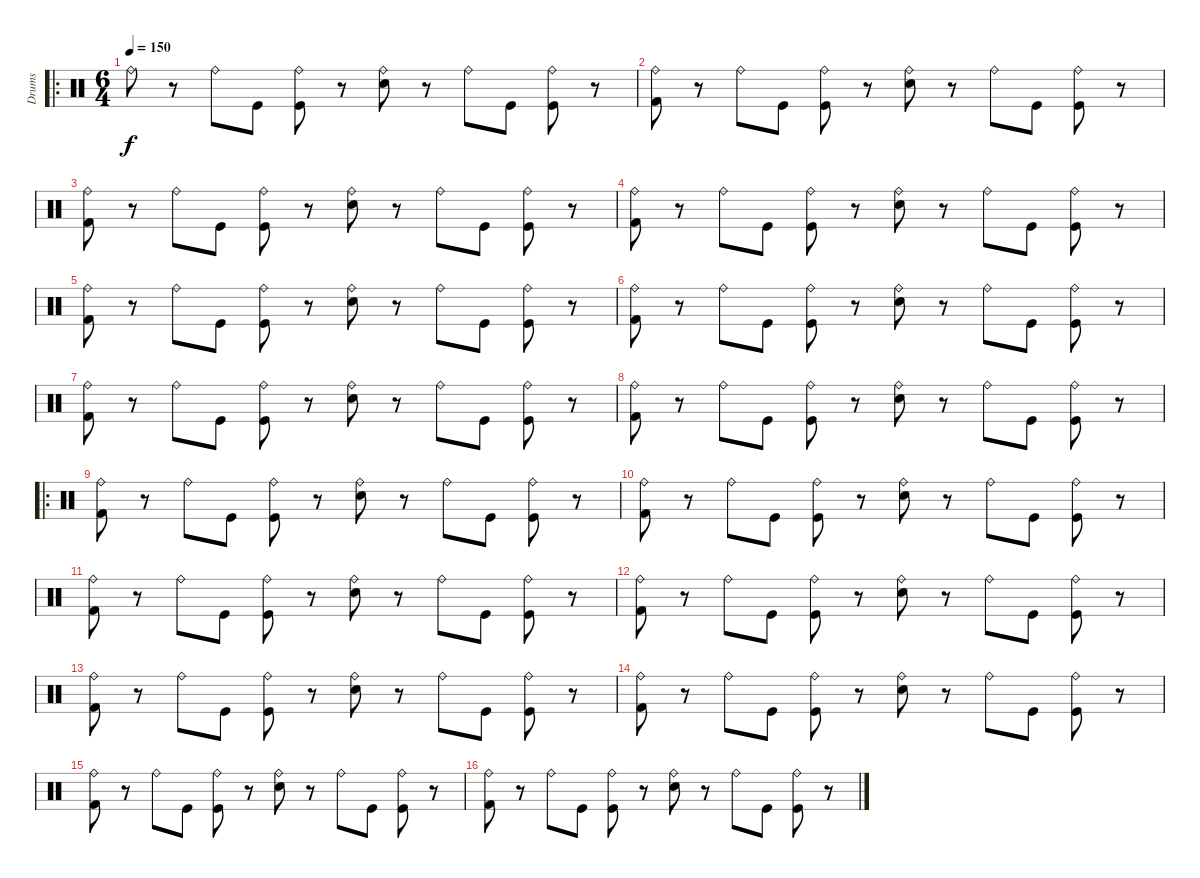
\track ("Drums" "Drums") {instrument percussion}
\staff {score}
\articulation defaults
\ro
\ts (6 4)
\tempo 150
\clef neutral
\ks c "Ride (bell)".8{dy f}
r.8 "Ride (bell)".8 "Kick (hit)".8 ("Kick (hit)" "Ride (bell)").8 r.8 ("Snare (hit) 2" "Ride (bell)").8 r.8 "Ride (bell)".8 "Kick (hit)".8 ("Kick (hit)" "Ride (bell)").8 r.8 |
("Kick (hit) 2" "Ride (bell)").8 r.8 "Ride (bell)".8 "Kick (hit)".8 ("Kick (hit)" "Ride (bell)").8 r.8 ("Snare (hit) 2" "Ride (bell)").8 r.8 "Ride (bell)".8 "Kick (hit)".8 ("Kick (hit)" "Ride (bell)").8 r.8 |
("Kick (hit) 2" "Ride (bell)").8 r.8 "Ride (bell)".8 "Kick (hit)".8 ("Kick (hit)" "Ride (bell)").8 r.8 ("Snare (hit) 2" "Ride (bell)").8 r.8 "Ride (bell)".8 "Kick (hit)".8 ("Kick (hit)" "Ride (bell)").8 r.8 |
("Kick (hit) 2" "Ride (bell)").8 r.8 "Ride (bell)".8 "Kick (hit)".8 ("Kick (hit)" "Ride (bell)").8 r.8 ("Snare (hit) 2" "Ride (bell)").8 r.8 "Ride (bell)".8 "Kick (hit)".8 ("Kick (hit)" "Ride (bell)").8 r.8 |
("Kick (hit) 2" "Ride (bell)").8 r.8 "Ride (bell)".8 "Kick (hit)".8 ("Kick (hit)" "Ride (bell)").8 r.8 ("Snare (hit) 2" "Ride (bell)").8 r.8 "Ride (bell)".8 "Kick (hit)".8 ("Kick (hit)" "Ride (bell)").8 r.8 |
("Kick (hit) 2" "Ride (bell)").8 r.8 "Ride (bell)".8 "Kick (hit)".8 ("Kick (hit)" "Ride (bell)").8 r.8 ("Snare (hit) 2" "Ride (bell)").8 r.8 "Ride (bell)".8 "Kick (hit)".8 ("Kick (hit)" "Ride (bell)").8 r.8 |
("Kick (hit) 2" "Ride (bell)").8 r.8 "Ride (bell)".8 "Kick (hit)".8 ("Kick (hit)" "Ride (bell)").8 r.8 ("Snare (hit) 2" "Ride (bell)").8 r.8 "Ride (bell)".8 "Kick (hit)".8 ("Kick (hit)" "Ride (bell)").8 r.8 |
("Kick (hit) 2" "Ride (bell)").8 r.8 "Ride (bell)".8 "Kick (hit)".8 ("Kick (hit)" "Ride (bell)").8 r.8 ("Snare (hit) 2" "Ride (bell)").8 r.8 "Ride (bell)".8 "Kick (hit)".8 ("Kick (hit)" "Ride (bell)").8 r.8 |
\ro
("Kick (hit) 2" "Ride (bell)").8 r.8 "Ride (bell)".8 "Kick (hit)".8 ("Kick (hit)" "Ride (bell)").8 r.8 ("Snare (hit) 2" "Ride (bell)").8 r.8 "Ride (bell)".8 "Kick (hit)".8 ("Kick (hit)" "Ride (bell)").8 r.8 |
("Kick (hit) 2" "Ride (bell)").8 r.8 "Ride (bell)".8 "Kick (hit)".8 ("Kick (hit)" "Ride (bell)").8 r.8 ("Snare (hit) 2" "Ride (bell)").8 r.8 "Ride (bell)".8 "Kick (hit)".8 ("Kick (hit)" "Ride (bell)").8 r.8 |
("Kick (hit) 2" "Ride (bell)").8 r.8 "Ride (bell)".8 "Kick (hit)".8 ("Kick (hit)" "Ride (bell)").8 r.8 ("Snare (hit) 2" "Ride (bell)").8 r.8 "Ride (bell)".8 "Kick (hit)".8 ("Kick (hit)" "Ride (bell)").8 r.8 |
("Kick (hit) 2" "Ride (bell)").8 r.8 "Ride (bell)".8 "Kick (hit)".8 ("Kick (hit)" "Ride (bell)").8 r.8 ("Snare (hit) 2" "Ride (bell)").8 r.8 "Ride (bell)".8 "Kick (hit)".8 ("Kick (hit)" "Ride (bell)").8 r.8 |
("Kick (hit) 2" "Ride (bell)").8 r.8 "Ride (bell)".8 "Kick (hit)".8 ("Kick (hit)" "Ride (bell)").8 r.8 ("Snare (hit) 2" "Ride (bell)").8 r.8 "Ride (bell)".8 "Kick (hit)".8 ("Kick (hit)" "Ride (bell)").8 r.8 |
("Kick (hit) 2" "Ride (bell)").8 r.8 "Ride (bell)".8 "Kick (hit)".8 ("Kick (hit)" "Ride (bell)").8 r.8 ("Snare (hit) 2" "Ride (bell)").8 r.8 "Ride (bell)".8 "Kick (hit)".8 ("Kick (hit)" "Ride (bell)").8 r.8 |
("Kick (hit) 2" "Ride (bell)").8 r.8 "Ride (bell)".8 "Kick (hit)".8 ("Kick (hit)" "Ride (bell)").8 r.8 ("Snare (hit) 2" "Ride (bell)").8 r.8 "Ride (bell)".8 "Kick (hit)".8 ("Kick (hit)" "Ride (bell)").8 r.8 |
("Kick (hit) 2" "Ride (bell)").8 r.8 "Ride (bell)".8 "Kick (hit)".8 ("Kick (hit)" "Ride (bell)").8 r.8 ("Snare (hit) 2" "Ride (bell)").8 r.8 "Ride (bell)".8 "Kick (hit)".8 ("Kick (hit)" "Ride (bell)").8 r.8
